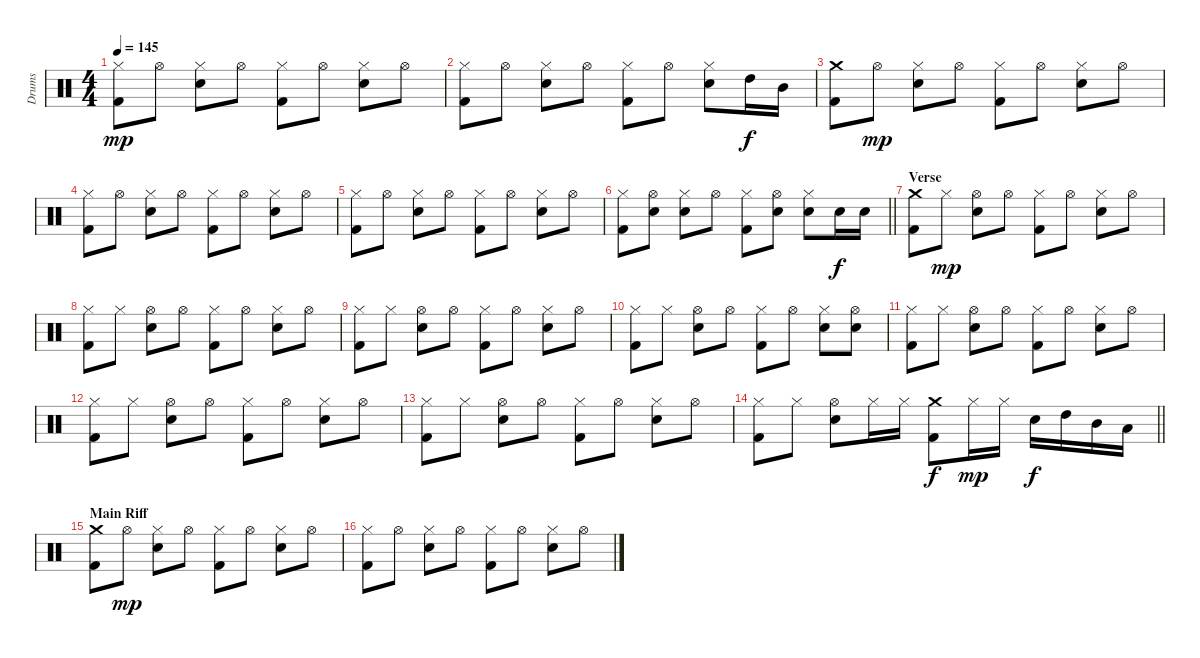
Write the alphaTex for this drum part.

\track ("Drums" "Drums") {instrument percussion}
\staff {score}
\articulation defaults
\ts (4 4)
\tempo 145
\clef neutral
\ks c
("Hi-Hat (closed)" "Kick (hit) 2").8{dy mp} "Hi-Hat (open)".8 ("Hi-Hat (closed)" "Snare (hit) 2").8 "Hi-Hat (open)".8 ("Hi-Hat (closed)" "Kick (hit) 2").8 "Hi-Hat (open)".8 ("Hi-Hat (closed)" "Snare (hit) 2").8 "Hi-Hat (open)".8 |
("Hi-Hat (closed)" "Kick (hit) 2").8 "Hi-Hat (open)".8 ("Hi-Hat (closed)" "Snare (hit) 2").8 "Hi-Hat (open)".8 ("Hi-Hat (closed)" "Kick (hit) 2").8 "Hi-Hat (open)".8 ("Hi-Hat (closed)" "Snare (hit) 2").8 "High Tom (hit)".16{dy f} "Mid Tom (hit)".16 |
("Crash medium (hit)" "Kick (hit) 2").8 "Hi-Hat (open)".8{dy mp} ("Hi-Hat (closed)" "Snare (hit) 2").8 "Hi-Hat (open)".8 ("Hi-Hat (closed)" "Kick (hit) 2").8 "Hi-Hat (open)".8 ("Hi-Hat (closed)" "Snare (hit) 2").8 "Hi-Hat (open)".8 |
("Hi-Hat (closed)" "Kick (hit) 2").8 "Hi-Hat (open)".8 ("Hi-Hat (closed)" "Snare (hit) 2").8 "Hi-Hat (open)".8 ("Hi-Hat (closed)" "Kick (hit) 2").8 "Hi-Hat (open)".8 ("Hi-Hat (closed)" "Snare (hit) 2").8 "Hi-Hat (open)".8 |
("Hi-Hat (closed)" "Kick (hit) 2").8 "Hi-Hat (open)".8 ("Hi-Hat (closed)" "Snare (hit) 2").8 "Hi-Hat (open)".8 ("Hi-Hat (closed)" "Kick (hit) 2").8 "Hi-Hat (open)".8 ("Hi-Hat (closed)" "Snare (hit) 2").8 "Hi-Hat (open)".8 |
\barLineRight lightlight
("Hi-Hat (closed)" "Kick (hit) 2").8 ("Hi-Hat (open)" "Snare (hit) 2").8 ("Hi-Hat (closed)" "Snare (hit) 2").8 "Hi-Hat (open)".8 ("Hi-Hat (closed)" "Kick (hit) 2").8 ("Hi-Hat (open)" "Snare (hit) 2").8 ("Hi-Hat (closed)" "Snare (hit) 2").8 "Snare (hit) 2".16{dy f} "Snare (hit) 2".16 |
\section ("" "Verse")
("Crash medium (hit)" "Kick (hit) 2").8 "Hi-Hat (closed)".8{dy mp} ("Hi-Hat (open)" "Snare (hit) 2").8 "Hi-Hat (open)".8 ("Hi-Hat (closed)" "Kick (hit) 2").8 "Hi-Hat (open)".8 ("Hi-Hat (closed)" "Snare (hit) 2").8 "Hi-Hat (open)".8 |
("Hi-Hat (closed)" "Kick (hit) 2").8 "Hi-Hat (closed)".8 ("Hi-Hat (open)" "Snare (hit) 2").8 "Hi-Hat (open)".8 ("Hi-Hat (closed)" "Kick (hit) 2").8 "Hi-Hat (open)".8 ("Hi-Hat (closed)" "Snare (hit) 2").8 "Hi-Hat (open)".8 |
("Hi-Hat (closed)" "Kick (hit) 2").8 "Hi-Hat (closed)".8 ("Hi-Hat (open)" "Snare (hit) 2").8 "Hi-Hat (open)".8 ("Hi-Hat (closed)" "Kick (hit) 2").8 "Hi-Hat (open)".8 ("Hi-Hat (closed)" "Snare (hit) 2").8 "Hi-Hat (open)".8 |
("Hi-Hat (closed)" "Kick (hit) 2").8 "Hi-Hat (closed)".8 ("Hi-Hat (open)" "Snare (hit) 2").8 "Hi-Hat (open)".8 ("Hi-Hat (closed)" "Kick (hit) 2").8 "Hi-Hat (open)".8 ("Hi-Hat (closed)" "Snare (hit) 2").8 ("Hi-Hat (open)" "Snare (hit) 2").8 |
("Hi-Hat (closed)" "Kick (hit) 2").8 "Hi-Hat (closed)".8 ("Hi-Hat (open)" "Snare (hit) 2").8 "Hi-Hat (open)".8 ("Hi-Hat (closed)" "Kick (hit) 2").8 "Hi-Hat (open)".8 ("Hi-Hat (closed)" "Snare (hit) 2").8 "Hi-Hat (open)".8 |
("Hi-Hat (closed)" "Kick (hit) 2").8 "Hi-Hat (closed)".8 ("Hi-Hat (open)" "Snare (hit) 2").8 "Hi-Hat (open)".8 ("Hi-Hat (closed)" "Kick (hit) 2").8 "Hi-Hat (open)".8 ("Hi-Hat (closed)" "Snare (hit) 2").8 "Hi-Hat (open)".8 |
("Hi-Hat (closed)" "Kick (hit) 2").8 "Hi-Hat (closed)".8 ("Hi-Hat (open)" "Snare (hit) 2").8 "Hi-Hat (open)".8 ("Hi-Hat (closed)" "Kick (hit) 2").8 "Hi-Hat (open)".8 ("Hi-Hat (closed)" "Snare (hit) 2").8 "Hi-Hat (open)".8 |
\barLineRight lightlight
("Hi-Hat (closed)" "Kick (hit) 2").8 "Hi-Hat (closed)".8 ("Hi-Hat (open)" "Snare (hit) 2").8 "Hi-Hat (closed)".16 "Hi-Hat (closed)".16 ("Crash medium (hit)" "Kick (hit) 2").8{dy f} "Hi-Hat (closed)".16{dy mp} "Hi-Hat (closed)".16 "Snare (hit) 2".16{dy f} "High Tom (hit)".16 "Mid Tom (hit)".16 "Low Tom (hit)".16 |
\section ("" "Main Riff")
("Crash medium (hit)" "Kick (hit) 2").8 "Hi-Hat (open)".8{dy mp} ("Hi-Hat (closed)" "Snare (hit) 2").8 "Hi-Hat (open)".8 ("Hi-Hat (closed)" "Kick (hit) 2").8 "Hi-Hat (open)".8 ("Hi-Hat (closed)" "Snare (hit) 2").8 "Hi-Hat (open)".8 |
("Hi-Hat (closed)" "Kick (hit) 2").8 "Hi-Hat (open)".8 ("Hi-Hat (closed)" "Snare (hit) 2").8 "Hi-Hat (open)".8 ("Hi-Hat (closed)" "Kick (hit) 2").8 "Hi-Hat (open)".8 ("Hi-Hat (closed)" "Snare (hit) 2").8 "Hi-Hat (open)".8
